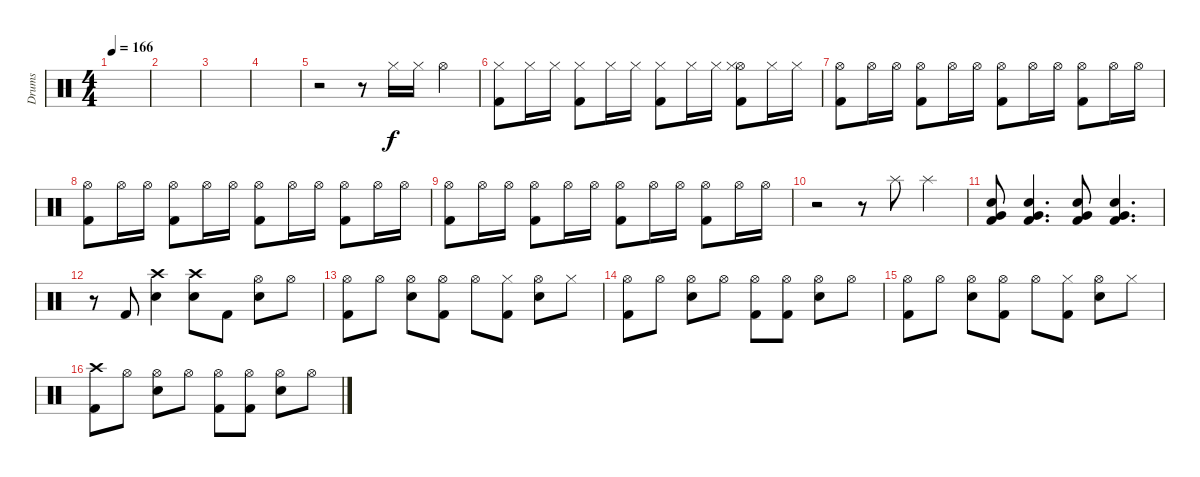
\track ("Drums" "Drums") {instrument percussion}
\staff {score}
\articulation defaults
\ts (4 4)
\tempo 166
\clef neutral
\ks c
|
|
|
|
r.2 r.8 "Hi-Hat (closed)".16 "Hi-Hat (closed)".16 "Hi-Hat (open)".4 |
("Hi-Hat (closed)" "Kick (hit) 2").8 "Hi-Hat (closed)".16 "Hi-Hat (closed)".16 ("Hi-Hat (closed)" "Kick (hit) 2").8 "Hi-Hat (closed)".16 "Hi-Hat (closed)".16 ("Hi-Hat (closed)" "Kick (hit) 2").8 "Hi-Hat (closed)".16 "Hi-Hat (closed)".16 ("Hi-Hat (open)" "Hi-Hat (closed)" "Kick (hit) 2").8 "Hi-Hat (closed)".16 "Hi-Hat (closed)".16 |
("Hi-Hat (open)" "Kick (hit) 2").8 "Hi-Hat (open)".16 "Hi-Hat (open)".16 ("Hi-Hat (open)" "Kick (hit) 2").8 "Hi-Hat (open)".16 "Hi-Hat (open)".16 ("Hi-Hat (open)" "Kick (hit) 2").8 "Hi-Hat (open)".16 "Hi-Hat (open)".16 ("Hi-Hat (open)" "Kick (hit) 2").8 "Hi-Hat (open)".16 "Hi-Hat (open)".16 |
("Hi-Hat (open)" "Kick (hit) 2").8 "Hi-Hat (open)".16 "Hi-Hat (open)".16 ("Hi-Hat (open)" "Kick (hit) 2").8 "Hi-Hat (open)".16 "Hi-Hat (open)".16 ("Hi-Hat (open)" "Kick (hit) 2").8 "Hi-Hat (open)".16 "Hi-Hat (open)".16 ("Hi-Hat (open)" "Kick (hit) 2").8 "Hi-Hat (open)".16 "Hi-Hat (open)".16 |
("Hi-Hat (open)" "Kick (hit) 2").8 "Hi-Hat (open)".16 "Hi-Hat (open)".16 ("Hi-Hat (open)" "Kick (hit) 2").8 "Hi-Hat (open)".16 "Hi-Hat (open)".16 ("Hi-Hat (open)" "Kick (hit) 2").8 "Hi-Hat (open)".16 "Hi-Hat (open)".16 ("Hi-Hat (open)" "Kick (hit) 2").8 "Hi-Hat (open)".16 "Hi-Hat (open)".16 |
r.2 r.8 "Splash (hit)".8 "Splash (hit)".4 |
("Very Low Tom (hit)" "Snare (hit) 2" "Kick (hit) 2").8 ("Very Low Tom (hit)" "Snare (hit) 2" "Kick (hit) 2").4{d} ("Very Low Tom (hit)" "Snare (hit) 2" "Kick (hit) 2").8 ("Very Low Tom (hit)" "Snare (hit) 2" "Kick (hit) 2").4{d} |
r.8 "Kick (hit) 2".8 ("Crash high (hit)" "Snare (hit) 2").4 ("Crash high (hit)" "Snare (hit) 2").8 "Kick (hit) 2".8 ("Hi-Hat (open)" "Snare (hit) 2").8 "Hi-Hat (open)".8 |
("Hi-Hat (open)" "Kick (hit) 2").8 "Hi-Hat (open)".8 ("Hi-Hat (open)" "Snare (hit) 2").8 ("Hi-Hat (open)" "Kick (hit) 2").8 "Hi-Hat (open)".8 ("Hi-Hat (closed)" "Kick (hit) 2").8 ("Hi-Hat (open)" "Snare (hit) 2").8 "Hi-Hat (closed)".8 |
("Hi-Hat (open)" "Kick (hit) 2").8 "Hi-Hat (open)".8 ("Hi-Hat (open)" "Snare (hit) 2").8 "Hi-Hat (open)".8 ("Hi-Hat (open)" "Kick (hit) 2").8 ("Hi-Hat (open)" "Kick (hit) 2").8 ("Hi-Hat (open)" "Snare (hit) 2").8 "Hi-Hat (open)".8 |
("Hi-Hat (open)" "Kick (hit) 2").8 "Hi-Hat (open)".8 ("Hi-Hat (open)" "Snare (hit) 2").8 ("Hi-Hat (open)" "Kick (hit) 2").8 "Hi-Hat (open)".8 ("Hi-Hat (closed)" "Kick (hit) 2").8 ("Hi-Hat (open)" "Snare (hit) 2").8 "Hi-Hat (closed)".8 |
("Crash high (hit)" "Kick (hit) 2").8 "Hi-Hat (open)".8 ("Hi-Hat (open)" "Snare (hit) 2").8 "Hi-Hat (open)".8 ("Hi-Hat (open)" "Kick (hit) 2").8 ("Hi-Hat (open)" "Kick (hit) 2").8 ("Hi-Hat (open)" "Snare (hit) 2").8 "Hi-Hat (open)".8
